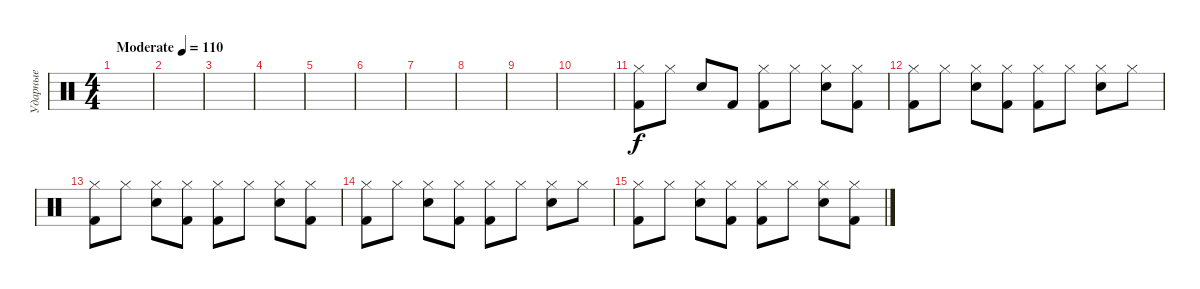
\track ("Ударные" "Ударные") {instrument percussion}
\staff {score}
\articulation defaults
\ts (4 4)
\tempo (110 "Moderate")
\clef neutral
\ks c
|
|
|
|
|
|
|
|
|
|
("Kick (hit) 2" "Hi-Hat (closed)").8 "Hi-Hat (closed)".8 "Electric Snare (hit)".8 "Kick (hit) 2".8 ("Kick (hit) 2" "Hi-Hat (closed)").8 "Hi-Hat (closed)".8 ("Snare (hit) 2" "Hi-Hat (closed)").8 ("Kick (hit) 2" "Hi-Hat (closed)").8 |
("Kick (hit) 2" "Hi-Hat (closed)").8 "Hi-Hat (closed)".8 ("Electric Snare (hit)" "Hi-Hat (closed)").8 ("Kick (hit) 2" "Hi-Hat (closed)").8 ("Kick (hit) 2" "Hi-Hat (closed)").8 "Hi-Hat (closed)".8 ("Snare (hit) 2" "Hi-Hat (closed)").8 "Hi-Hat (closed)".8 |
("Kick (hit) 2" "Hi-Hat (closed)").8 "Hi-Hat (closed)".8 ("Electric Snare (hit)" "Hi-Hat (closed)").8 ("Kick (hit) 2" "Hi-Hat (closed)").8 ("Kick (hit) 2" "Hi-Hat (closed)").8 "Hi-Hat (closed)".8 ("Snare (hit) 2" "Hi-Hat (closed)").8 ("Kick (hit) 2" "Hi-Hat (closed)").8 |
("Kick (hit) 2" "Hi-Hat (closed)").8 "Hi-Hat (closed)".8 ("Electric Snare (hit)" "Hi-Hat (closed)").8 ("Kick (hit) 2" "Hi-Hat (closed)").8 ("Kick (hit) 2" "Hi-Hat (closed)").8 "Hi-Hat (closed)".8 ("Snare (hit) 2" "Hi-Hat (closed)").8 "Hi-Hat (closed)".8 |
("Kick (hit) 2" "Hi-Hat (closed)").8 "Hi-Hat (closed)".8 ("Electric Snare (hit)" "Hi-Hat (closed)").8 ("Kick (hit) 2" "Hi-Hat (closed)").8 ("Kick (hit) 2" "Hi-Hat (closed)").8 "Hi-Hat (closed)".8 ("Snare (hit) 2" "Hi-Hat (closed)").8 ("Kick (hit) 2" "Hi-Hat (closed)").8
